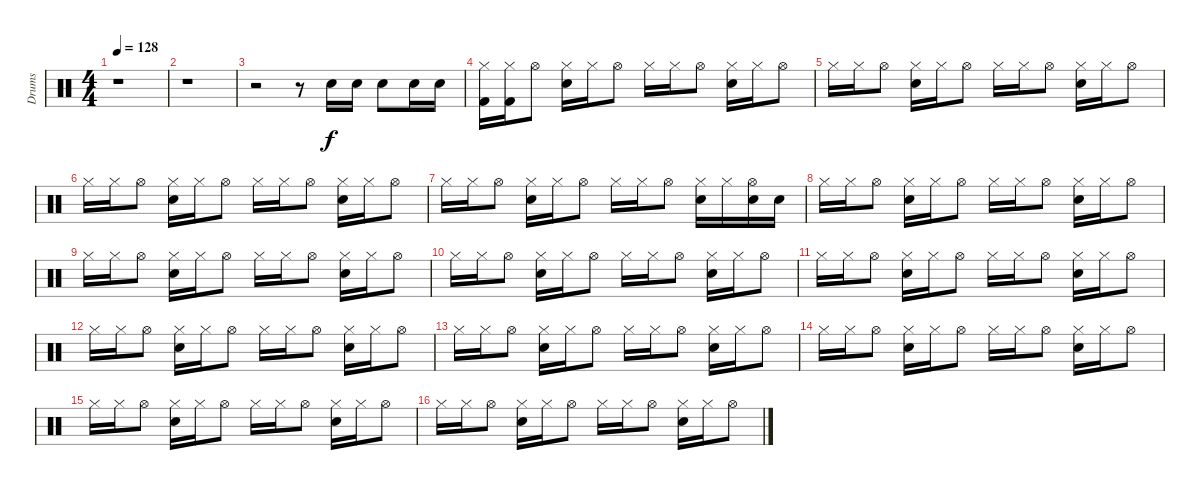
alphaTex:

\track ("Drums" "Drums") {instrument percussion}
\staff {score}
\articulation defaults
\ts (4 4)
\tempo 128
\clef neutral
\ks c
r.1{dy f} |
r.1 |
r.2 r.8 "Electric Snare (hit)".16 "Electric Snare (hit)".16 "Electric Snare (hit)".8 "Electric Snare (hit)".16 "Electric Snare (hit)".16 |
("Hi-Hat (closed)" "Kick (hit) 2").16 ("Hi-Hat (closed)" "Kick (hit) 2").16 "Hi-Hat (open)".8 ("Hi-Hat (closed)" "Electric Snare (hit)").16 "Hi-Hat (closed)".16 "Hi-Hat (open)".8 "Hi-Hat (closed)".16 "Hi-Hat (closed)".16 "Hi-Hat (open)".8 ("Hi-Hat (closed)" "Electric Snare (hit)").16 "Hi-Hat (closed)".16 "Hi-Hat (open)".8 |
"Hi-Hat (closed)".16 "Hi-Hat (closed)".16 "Hi-Hat (open)".8 ("Hi-Hat (closed)" "Electric Snare (hit)").16 "Hi-Hat (closed)".16 "Hi-Hat (open)".8 "Hi-Hat (closed)".16 "Hi-Hat (closed)".16 "Hi-Hat (open)".8 ("Hi-Hat (closed)" "Electric Snare (hit)").16 "Hi-Hat (closed)".16 "Hi-Hat (open)".8 |
"Hi-Hat (closed)".16 "Hi-Hat (closed)".16 "Hi-Hat (open)".8 ("Hi-Hat (closed)" "Electric Snare (hit)").16 "Hi-Hat (closed)".16 "Hi-Hat (open)".8 "Hi-Hat (closed)".16 "Hi-Hat (closed)".16 "Hi-Hat (open)".8 ("Hi-Hat (closed)" "Electric Snare (hit)").16 "Hi-Hat (closed)".16 "Hi-Hat (open)".8 |
"Hi-Hat (closed)".16 "Hi-Hat (closed)".16 "Hi-Hat (open)".8 ("Hi-Hat (closed)" "Electric Snare (hit)").16 "Hi-Hat (closed)".16 "Hi-Hat (open)".8 "Hi-Hat (closed)".16 "Hi-Hat (closed)".16 "Hi-Hat (open)".8 ("Hi-Hat (closed)" "Electric Snare (hit)").16 "Hi-Hat (closed)".16 ("Hi-Hat (open)" "Electric Snare (hit)").16 "Electric Snare (hit)".16 |
"Hi-Hat (closed)".16 "Hi-Hat (closed)".16 "Hi-Hat (open)".8 ("Hi-Hat (closed)" "Electric Snare (hit)").16 "Hi-Hat (closed)".16 "Hi-Hat (open)".8 "Hi-Hat (closed)".16 "Hi-Hat (closed)".16 "Hi-Hat (open)".8 ("Hi-Hat (closed)" "Electric Snare (hit)").16 "Hi-Hat (closed)".16 "Hi-Hat (open)".8 |
"Hi-Hat (closed)".16 "Hi-Hat (closed)".16 "Hi-Hat (open)".8 ("Hi-Hat (closed)" "Electric Snare (hit)").16 "Hi-Hat (closed)".16 "Hi-Hat (open)".8 "Hi-Hat (closed)".16 "Hi-Hat (closed)".16 "Hi-Hat (open)".8 ("Hi-Hat (closed)" "Electric Snare (hit)").16 "Hi-Hat (closed)".16 "Hi-Hat (open)".8 |
"Hi-Hat (closed)".16 "Hi-Hat (closed)".16 "Hi-Hat (open)".8 ("Hi-Hat (closed)" "Electric Snare (hit)").16 "Hi-Hat (closed)".16 "Hi-Hat (open)".8 "Hi-Hat (closed)".16 "Hi-Hat (closed)".16 "Hi-Hat (open)".8 ("Hi-Hat (closed)" "Electric Snare (hit)").16 "Hi-Hat (closed)".16 "Hi-Hat (open)".8 |
"Hi-Hat (closed)".16 "Hi-Hat (closed)".16 "Hi-Hat (open)".8 ("Hi-Hat (closed)" "Electric Snare (hit)").16 "Hi-Hat (closed)".16 "Hi-Hat (open)".8 "Hi-Hat (closed)".16 "Hi-Hat (closed)".16 "Hi-Hat (open)".8 ("Hi-Hat (closed)" "Electric Snare (hit)").16 "Hi-Hat (closed)".16 "Hi-Hat (open)".8 |
"Hi-Hat (closed)".16 "Hi-Hat (closed)".16 "Hi-Hat (open)".8 ("Hi-Hat (closed)" "Electric Snare (hit)").16 "Hi-Hat (closed)".16 "Hi-Hat (open)".8 "Hi-Hat (closed)".16 "Hi-Hat (closed)".16 "Hi-Hat (open)".8 ("Hi-Hat (closed)" "Electric Snare (hit)").16 "Hi-Hat (closed)".16 "Hi-Hat (open)".8 |
"Hi-Hat (closed)".16 "Hi-Hat (closed)".16 "Hi-Hat (open)".8 ("Hi-Hat (closed)" "Electric Snare (hit)").16 "Hi-Hat (closed)".16 "Hi-Hat (open)".8 "Hi-Hat (closed)".16 "Hi-Hat (closed)".16 "Hi-Hat (open)".8 ("Hi-Hat (closed)" "Electric Snare (hit)").16 "Hi-Hat (closed)".16 "Hi-Hat (open)".8 |
"Hi-Hat (closed)".16 "Hi-Hat (closed)".16 "Hi-Hat (open)".8 ("Hi-Hat (closed)" "Electric Snare (hit)").16 "Hi-Hat (closed)".16 "Hi-Hat (open)".8 "Hi-Hat (closed)".16 "Hi-Hat (closed)".16 "Hi-Hat (open)".8 ("Hi-Hat (closed)" "Electric Snare (hit)").16 "Hi-Hat (closed)".16 "Hi-Hat (open)".8 |
"Hi-Hat (closed)".16 "Hi-Hat (closed)".16 "Hi-Hat (open)".8 ("Hi-Hat (closed)" "Electric Snare (hit)").16 "Hi-Hat (closed)".16 "Hi-Hat (open)".8 "Hi-Hat (closed)".16 "Hi-Hat (closed)".16 "Hi-Hat (open)".8 ("Hi-Hat (closed)" "Electric Snare (hit)").16 "Hi-Hat (closed)".16 "Hi-Hat (open)".8 |
"Hi-Hat (closed)".16 "Hi-Hat (closed)".16 "Hi-Hat (open)".8 ("Hi-Hat (closed)" "Electric Snare (hit)").16 "Hi-Hat (closed)".16 "Hi-Hat (open)".8 "Hi-Hat (closed)".16 "Hi-Hat (closed)".16 "Hi-Hat (open)".8 ("Hi-Hat (closed)" "Electric Snare (hit)").16 "Hi-Hat (closed)".16 "Hi-Hat (open)".8
